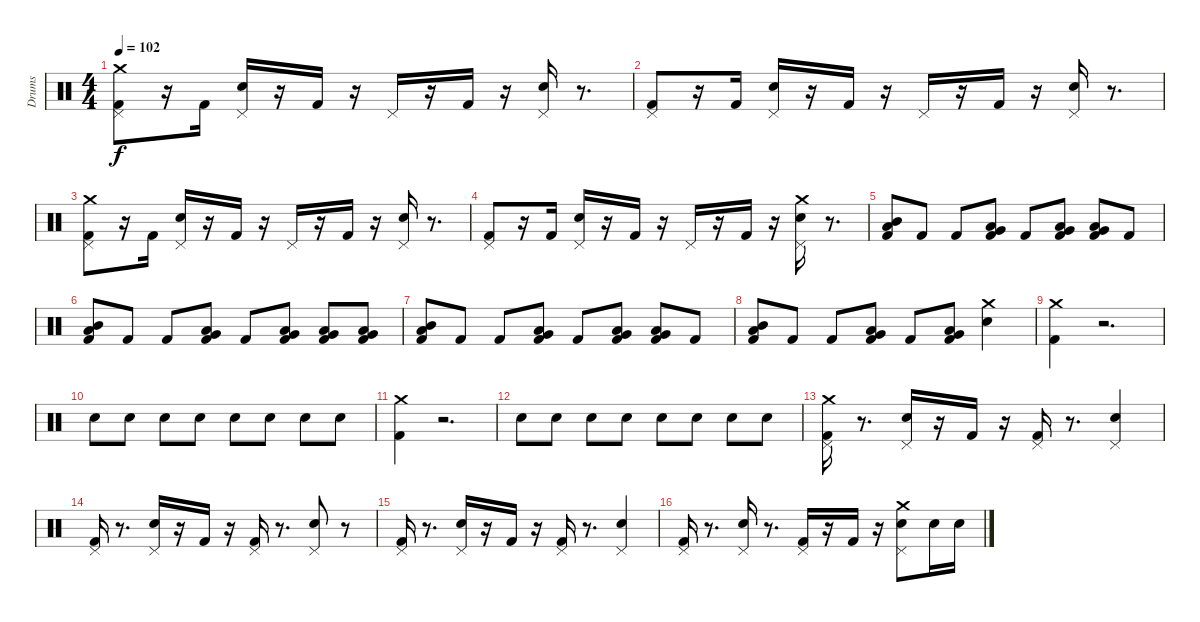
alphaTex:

\track ("Drums" "Drums") {instrument percussion}
\staff {score}
\articulation defaults
\ts (4 4)
\tempo 102
\clef neutral
\ks c
("Crash medium (hit)" "Pedal Hi-Hat (hit)" "Kick (hit) 2").8{dy f} r.16 "Kick (hit) 2".16 ("Pedal Hi-Hat (hit)" "Snare (hit) 2").16 r.16 "Kick (hit) 2".16 r.16 "Pedal Hi-Hat (hit)".16 r.16 "Kick (hit) 2".16 r.16 ("Pedal Hi-Hat (hit)" "Snare (hit) 2").16 r.8{d} |
("Pedal Hi-Hat (hit)" "Kick (hit) 2").8 r.16 "Kick (hit) 2".16 ("Pedal Hi-Hat (hit)" "Snare (hit) 2").16 r.16 "Kick (hit) 2".16 r.16 "Pedal Hi-Hat (hit)".16 r.16 "Kick (hit) 2".16 r.16 ("Pedal Hi-Hat (hit)" "Snare (hit) 2").16 r.8{d} |
("Crash medium (hit)" "Pedal Hi-Hat (hit)" "Kick (hit) 2").8 r.16 "Kick (hit) 2".16 ("Pedal Hi-Hat (hit)" "Snare (hit) 2").16 r.16 "Kick (hit) 2".16 r.16 "Pedal Hi-Hat (hit)".16 r.16 "Kick (hit) 2".16 r.16 ("Pedal Hi-Hat (hit)" "Snare (hit) 2").16 r.8{d} |
("Pedal Hi-Hat (hit)" "Kick (hit) 2").8 r.16 "Kick (hit) 2".16 ("Pedal Hi-Hat (hit)" "Snare (hit) 2").16 r.16 "Kick (hit) 2".16 r.16 "Pedal Hi-Hat (hit)".16 r.16 "Kick (hit) 2".16 r.16 ("Crash medium (hit)" "Pedal Hi-Hat (hit)" "Snare (hit) 2").16 r.8{d} |
("Mid Tom (hit)" "Kick (hit) 2" "Low Tom (hit)").8 "Kick (hit) 2".8 "Kick (hit) 2".8 ("Very Low Tom (hit)" "Kick (hit) 2" "Low Tom (hit)").8 "Kick (hit) 2".8 ("Low Floor Tom (hit)" "Very Low Tom (hit)" "Kick (hit) 2").8 ("Low Floor Tom (hit)" "Kick (hit) 2" "Very Low Tom (hit)").8 "Kick (hit) 2".8 |
("Low Tom (hit)" "Kick (hit) 2" "Mid Tom (hit)").8 "Kick (hit) 2".8 "Kick (hit) 2".8 ("Very Low Tom (hit)" "Kick (hit) 2" "Low Tom (hit)").8 "Kick (hit) 2".8 ("Low Floor Tom (hit)" "Very Low Tom (hit)" "Kick (hit) 2").8 ("Low Floor Tom (hit)" "Very Low Tom (hit)" "Kick (hit) 2").8 ("Very Low Tom (hit)" "Low Tom (hit)" "Kick (hit) 2").8 |
("Mid Tom (hit)" "Kick (hit) 2" "Low Tom (hit)").8 "Kick (hit) 2".8 "Kick (hit) 2".8 ("Very Low Tom (hit)" "Kick (hit) 2" "Low Tom (hit)").8 "Kick (hit) 2".8 ("Low Floor Tom (hit)" "Very Low Tom (hit)" "Kick (hit) 2").8 ("Low Floor Tom (hit)" "Kick (hit) 2" "Very Low Tom (hit)").8 "Kick (hit) 2".8 |
("Low Tom (hit)" "Kick (hit) 2" "Mid Tom (hit)").8 "Kick (hit) 2".8 "Kick (hit) 2".8 ("Very Low Tom (hit)" "Kick (hit) 2" "Low Tom (hit)").8 "Kick (hit) 2".8 ("Low Floor Tom (hit)" "Very Low Tom (hit)" "Kick (hit) 2").8 ("Crash medium (hit)" "Snare (hit) 2").4 |
("Crash medium (hit)" "Kick (hit) 2").4 r.2{d} |
"Electric Snare (hit)".8 "Electric Snare (hit)".8 "Electric Snare (hit)".8 "Electric Snare (hit)".8 "Electric Snare (hit)".8 "Electric Snare (hit)".8 "Electric Snare (hit)".8 "Electric Snare (hit)".8 |
("Crash medium (hit)" "Kick (hit) 2").4 r.2{d} |
"Electric Snare (hit)".8 "Electric Snare (hit)".8 "Electric Snare (hit)".8 "Electric Snare (hit)".8 "Electric Snare (hit)".8 "Electric Snare (hit)".8 "Electric Snare (hit)".8 "Electric Snare (hit)".8 |
("Pedal Hi-Hat (hit)" "Kick (hit) 2" "Crash medium (hit)").16 r.8{d} ("Pedal Hi-Hat (hit)" "Snare (hit) 2").16 r.16 "Kick (hit) 2".16 r.16 ("Pedal Hi-Hat (hit)" "Kick (hit) 2").16 r.8{d} ("Snare (hit) 2" "Pedal Hi-Hat (hit)").4 |
("Pedal Hi-Hat (hit)" "Kick (hit) 2").16 r.8{d} ("Pedal Hi-Hat (hit)" "Snare (hit) 2").16 r.16 "Kick (hit) 2".16 r.16 ("Pedal Hi-Hat (hit)" "Kick (hit) 2").16 r.8{d} ("Pedal Hi-Hat (hit)" "Snare (hit) 2").8 r.8 |
("Pedal Hi-Hat (hit)" "Kick (hit) 2").16 r.8{d} ("Pedal Hi-Hat (hit)" "Snare (hit) 2").16 r.16 "Kick (hit) 2".16 r.16 ("Pedal Hi-Hat (hit)" "Kick (hit) 2").16 r.8{d} ("Snare (hit) 2" "Pedal Hi-Hat (hit)").4 |
("Pedal Hi-Hat (hit)" "Kick (hit) 2").16 r.8{d} ("Pedal Hi-Hat (hit)" "Snare (hit) 2").16 r.8{d} ("Pedal Hi-Hat (hit)" "Kick (hit) 2").16 r.16 "Kick (hit) 2".16 r.16 ("Crash medium (hit)" "Pedal Hi-Hat (hit)" "Snare (hit) 2").8 "Snare (hit) 2".16 "Snare (hit) 2".16
